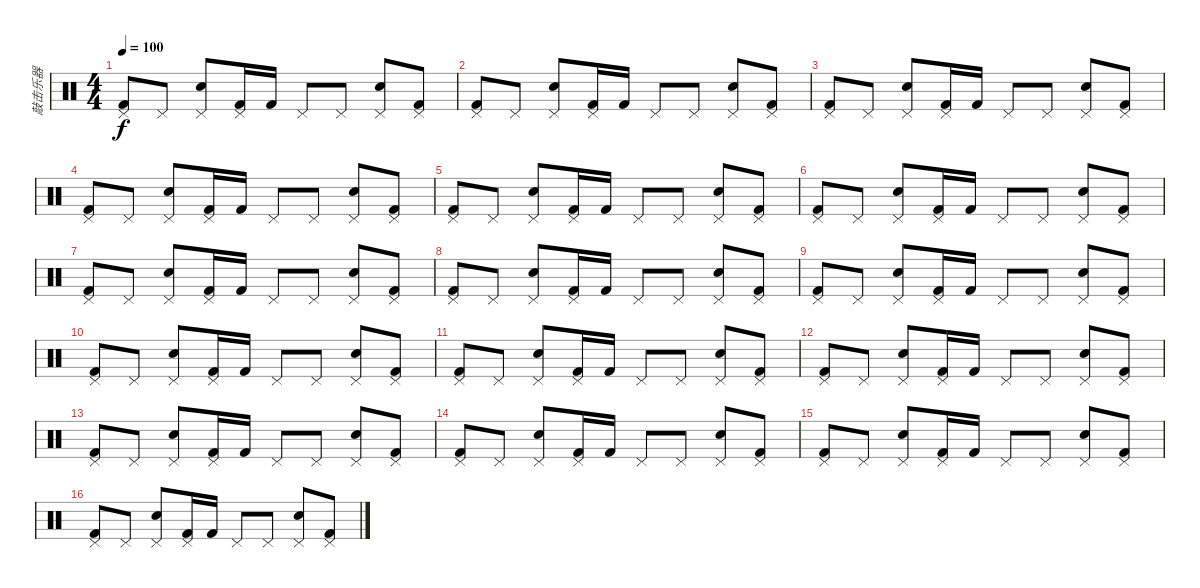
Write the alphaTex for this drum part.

\track ("敲击乐器" "敲击乐器") {instrument percussion}
\staff {score}
\articulation defaults
\ts (4 4)
\tempo 100
\clef neutral
\ks c
("Pedal Hi-Hat (hit)" "Kick (hit) 2").8{dy f} "Pedal Hi-Hat (hit)".8 ("Pedal Hi-Hat (hit)" "Electric Snare (hit)").8 ("Pedal Hi-Hat (hit)" "Kick (hit) 2").16 "Kick (hit) 2".16 "Pedal Hi-Hat (hit)".8 "Pedal Hi-Hat (hit)".8 ("Pedal Hi-Hat (hit)" "Electric Snare (hit)").8 ("Pedal Hi-Hat (hit)" "Kick (hit) 2").8 |
("Pedal Hi-Hat (hit)" "Kick (hit) 2").8 "Pedal Hi-Hat (hit)".8 ("Pedal Hi-Hat (hit)" "Electric Snare (hit)").8 ("Pedal Hi-Hat (hit)" "Kick (hit) 2").16 "Kick (hit) 2".16 "Pedal Hi-Hat (hit)".8 "Pedal Hi-Hat (hit)".8 ("Pedal Hi-Hat (hit)" "Electric Snare (hit)").8 ("Pedal Hi-Hat (hit)" "Kick (hit) 2").8 |
("Pedal Hi-Hat (hit)" "Kick (hit) 2").8 "Pedal Hi-Hat (hit)".8 ("Pedal Hi-Hat (hit)" "Electric Snare (hit)").8 ("Pedal Hi-Hat (hit)" "Kick (hit) 2").16 "Kick (hit) 2".16 "Pedal Hi-Hat (hit)".8 "Pedal Hi-Hat (hit)".8 ("Pedal Hi-Hat (hit)" "Electric Snare (hit)").8 ("Pedal Hi-Hat (hit)" "Kick (hit) 2").8 |
("Pedal Hi-Hat (hit)" "Kick (hit) 2").8 "Pedal Hi-Hat (hit)".8 ("Pedal Hi-Hat (hit)" "Electric Snare (hit)").8 ("Pedal Hi-Hat (hit)" "Kick (hit) 2").16 "Kick (hit) 2".16 "Pedal Hi-Hat (hit)".8 "Pedal Hi-Hat (hit)".8 ("Pedal Hi-Hat (hit)" "Electric Snare (hit)").8 ("Pedal Hi-Hat (hit)" "Kick (hit) 2").8 |
("Pedal Hi-Hat (hit)" "Kick (hit) 2").8 "Pedal Hi-Hat (hit)".8 ("Pedal Hi-Hat (hit)" "Electric Snare (hit)").8 ("Pedal Hi-Hat (hit)" "Kick (hit) 2").16 "Kick (hit) 2".16 "Pedal Hi-Hat (hit)".8 "Pedal Hi-Hat (hit)".8 ("Pedal Hi-Hat (hit)" "Electric Snare (hit)").8 ("Pedal Hi-Hat (hit)" "Kick (hit) 2").8 |
("Pedal Hi-Hat (hit)" "Kick (hit) 2").8 "Pedal Hi-Hat (hit)".8 ("Pedal Hi-Hat (hit)" "Electric Snare (hit)").8 ("Pedal Hi-Hat (hit)" "Kick (hit) 2").16 "Kick (hit) 2".16 "Pedal Hi-Hat (hit)".8 "Pedal Hi-Hat (hit)".8 ("Pedal Hi-Hat (hit)" "Electric Snare (hit)").8 ("Pedal Hi-Hat (hit)" "Kick (hit) 2").8 |
("Pedal Hi-Hat (hit)" "Kick (hit) 2").8 "Pedal Hi-Hat (hit)".8 ("Pedal Hi-Hat (hit)" "Electric Snare (hit)").8 ("Pedal Hi-Hat (hit)" "Kick (hit) 2").16 "Kick (hit) 2".16 "Pedal Hi-Hat (hit)".8 "Pedal Hi-Hat (hit)".8 ("Pedal Hi-Hat (hit)" "Electric Snare (hit)").8 ("Pedal Hi-Hat (hit)" "Kick (hit) 2").8 |
("Pedal Hi-Hat (hit)" "Kick (hit) 2").8 "Pedal Hi-Hat (hit)".8 ("Pedal Hi-Hat (hit)" "Electric Snare (hit)").8 ("Pedal Hi-Hat (hit)" "Kick (hit) 2").16 "Kick (hit) 2".16 "Pedal Hi-Hat (hit)".8 "Pedal Hi-Hat (hit)".8 ("Pedal Hi-Hat (hit)" "Electric Snare (hit)").8 ("Pedal Hi-Hat (hit)" "Kick (hit) 2").8 |
("Pedal Hi-Hat (hit)" "Kick (hit) 2").8 "Pedal Hi-Hat (hit)".8 ("Pedal Hi-Hat (hit)" "Electric Snare (hit)").8 ("Pedal Hi-Hat (hit)" "Kick (hit) 2").16 "Kick (hit) 2".16 "Pedal Hi-Hat (hit)".8 "Pedal Hi-Hat (hit)".8 ("Pedal Hi-Hat (hit)" "Electric Snare (hit)").8 ("Pedal Hi-Hat (hit)" "Kick (hit) 2").8 |
("Pedal Hi-Hat (hit)" "Kick (hit) 2").8 "Pedal Hi-Hat (hit)".8 ("Pedal Hi-Hat (hit)" "Electric Snare (hit)").8 ("Pedal Hi-Hat (hit)" "Kick (hit) 2").16 "Kick (hit) 2".16 "Pedal Hi-Hat (hit)".8 "Pedal Hi-Hat (hit)".8 ("Pedal Hi-Hat (hit)" "Electric Snare (hit)").8 ("Pedal Hi-Hat (hit)" "Kick (hit) 2").8 |
("Pedal Hi-Hat (hit)" "Kick (hit) 2").8 "Pedal Hi-Hat (hit)".8 ("Pedal Hi-Hat (hit)" "Electric Snare (hit)").8 ("Pedal Hi-Hat (hit)" "Kick (hit) 2").16 "Kick (hit) 2".16 "Pedal Hi-Hat (hit)".8 "Pedal Hi-Hat (hit)".8 ("Pedal Hi-Hat (hit)" "Electric Snare (hit)").8 ("Pedal Hi-Hat (hit)" "Kick (hit) 2").8 |
("Pedal Hi-Hat (hit)" "Kick (hit) 2").8 "Pedal Hi-Hat (hit)".8 ("Pedal Hi-Hat (hit)" "Electric Snare (hit)").8 ("Pedal Hi-Hat (hit)" "Kick (hit) 2").16 "Kick (hit) 2".16 "Pedal Hi-Hat (hit)".8 "Pedal Hi-Hat (hit)".8 ("Pedal Hi-Hat (hit)" "Electric Snare (hit)").8 ("Pedal Hi-Hat (hit)" "Kick (hit) 2").8 |
("Pedal Hi-Hat (hit)" "Kick (hit) 2").8 "Pedal Hi-Hat (hit)".8 ("Pedal Hi-Hat (hit)" "Electric Snare (hit)").8 ("Pedal Hi-Hat (hit)" "Kick (hit) 2").16 "Kick (hit) 2".16 "Pedal Hi-Hat (hit)".8 "Pedal Hi-Hat (hit)".8 ("Pedal Hi-Hat (hit)" "Electric Snare (hit)").8 ("Pedal Hi-Hat (hit)" "Kick (hit) 2").8 |
("Pedal Hi-Hat (hit)" "Kick (hit) 2").8 "Pedal Hi-Hat (hit)".8 ("Pedal Hi-Hat (hit)" "Electric Snare (hit)").8 ("Pedal Hi-Hat (hit)" "Kick (hit) 2").16 "Kick (hit) 2".16 "Pedal Hi-Hat (hit)".8 "Pedal Hi-Hat (hit)".8 ("Pedal Hi-Hat (hit)" "Electric Snare (hit)").8 ("Pedal Hi-Hat (hit)" "Kick (hit) 2").8 |
("Pedal Hi-Hat (hit)" "Kick (hit) 2").8 "Pedal Hi-Hat (hit)".8 ("Pedal Hi-Hat (hit)" "Electric Snare (hit)").8 ("Pedal Hi-Hat (hit)" "Kick (hit) 2").16 "Kick (hit) 2".16 "Pedal Hi-Hat (hit)".8 "Pedal Hi-Hat (hit)".8 ("Pedal Hi-Hat (hit)" "Electric Snare (hit)").8 ("Pedal Hi-Hat (hit)" "Kick (hit) 2").8 |
("Pedal Hi-Hat (hit)" "Kick (hit) 2").8 "Pedal Hi-Hat (hit)".8 ("Pedal Hi-Hat (hit)" "Electric Snare (hit)").8 ("Pedal Hi-Hat (hit)" "Kick (hit) 2").16 "Kick (hit) 2".16 "Pedal Hi-Hat (hit)".8 "Pedal Hi-Hat (hit)".8 ("Pedal Hi-Hat (hit)" "Electric Snare (hit)").8 ("Pedal Hi-Hat (hit)" "Kick (hit) 2").8
